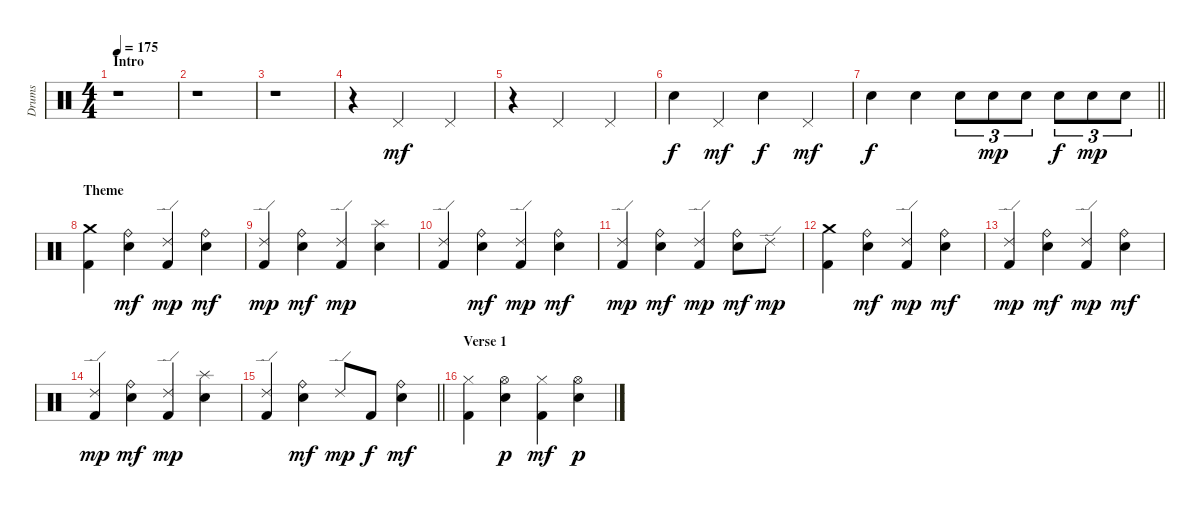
\track ("Drums" "Drums") {instrument percussion}
\staff {score}
\articulation defaults
\ts (4 4)
\section ("" "Intro")
\tempo 175
\clef neutral
\ks c
r.1{dy mf} |
r.1 |
r.1 |
r.4 "Pedal Hi-Hat (hit)".2 "Pedal Hi-Hat (hit)".4 |
r.4 "Pedal Hi-Hat (hit)".2 "Pedal Hi-Hat (hit)".4 |
"Electric Snare (hit)".4{dy f} "Pedal Hi-Hat (hit)".4{dy mf} "Electric Snare (hit)".4{dy f} "Pedal Hi-Hat (hit)".4{dy mf} |
\barLineRight lightlight "Electric Snare (hit)".4{dy f} "Electric Snare (hit)".4 "Electric Snare (hit)".8{tu (3 2)} "Electric Snare (hit)".8{tu (3 2) dy mp} "Electric Snare (hit)".8{tu (3 2)} "Electric Snare (hit)".8{tu (3 2) dy f} "Electric Snare (hit)".8{tu (3 2) dy mp} "Electric Snare (hit)".8{tu (3 2)}
|
\section ("" "Theme")
("Crash medium (hit)" "Kick (hit) 2").4 ("Ride (bell)" "Electric Snare (hit)").4{dy mf} ("Ride (edge) 2" "Kick (hit) 2").4{dy mp} ("Ride (bell)" "Electric Snare (hit)").4{dy mf} |
("Ride (edge) 2" "Kick (hit) 2").4{dy mp} ("Ride (bell)" "Electric Snare (hit)").4{dy mf} ("Ride (edge) 2" "Kick (hit) 2").4{dy mp} ("Splash (hit)" "Electric Snare (hit)").4 |
("Ride (edge) 2" "Kick (hit) 2").4 ("Ride (bell)" "Electric Snare (hit)").4{dy mf} ("Ride (edge) 2" "Kick (hit) 2").4{dy mp} ("Ride (bell)" "Electric Snare (hit)").4{dy mf} |
("Ride (edge) 2" "Kick (hit) 2").4{dy mp} ("Ride (bell)" "Electric Snare (hit)").4{dy mf} ("Ride (edge) 2" "Kick (hit) 2").4{dy mp} ("Ride (bell)" "Electric Snare (hit)").8{dy mf} "Ride (edge) 2".8{dy mp} |
("Crash medium (hit)" "Kick (hit) 2").4 ("Ride (bell)" "Electric Snare (hit)").4{dy mf} ("Ride (edge) 2" "Kick (hit) 2").4{dy mp} ("Ride (bell)" "Electric Snare (hit)").4{dy mf} |
("Ride (edge) 2" "Kick (hit) 2").4{dy mp} ("Ride (bell)" "Electric Snare (hit)").4{dy mf} ("Ride (edge) 2" "Kick (hit) 2").4{dy mp} ("Ride (bell)" "Electric Snare (hit)").4{dy mf} |
("Ride (edge) 2" "Kick (hit) 2").4{dy mp} ("Ride (bell)" "Electric Snare (hit)").4{dy mf} ("Ride (edge) 2" "Kick (hit) 2").4{dy mp} ("Splash (hit)" "Electric Snare (hit)").4 |
\barLineRight lightlight
("Ride (edge) 2" "Kick (hit) 2").4 ("Ride (bell)" "Electric Snare (hit)").4{dy mf} "Ride (edge) 2".8{dy mp} "Kick (hit) 2".8{dy f} ("Ride (bell)" "Electric Snare (hit)").4{dy mf} |
\section ("" "Verse 1")
("Hi-Hat (closed)" "Kick (hit) 2").4 ("Hi-Hat (open)" "Electric Snare (hit)").4{dy p} ("Hi-Hat (closed)" "Kick (hit) 2").4{dy mf} ("Hi-Hat (open)" "Electric Snare (hit)").4{dy p}
